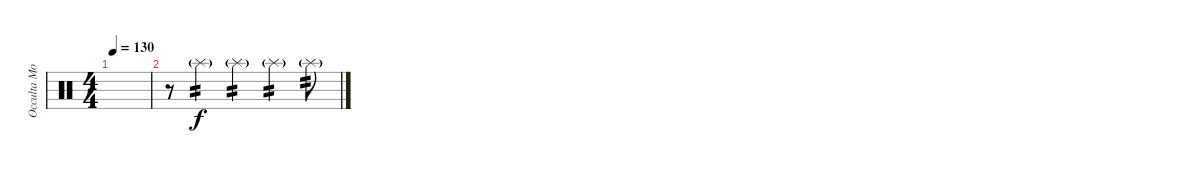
\track ("Occulta Mors" "Occulta Mo") {instrument percussion}
\staff {score}
\articulation defaults
\ts (4 4)
\tempo 130
\clef neutral
\ks c
|
r.8 "Splash (hit)"{g}.4{tp 2 volume 13} "Splash (hit)"{g}.4{tp 2 volume 10} "Splash (hit)"{g}.4{tp 2 volume 9} "Splash (hit)"{g}.8{tp 2 volume 6}
